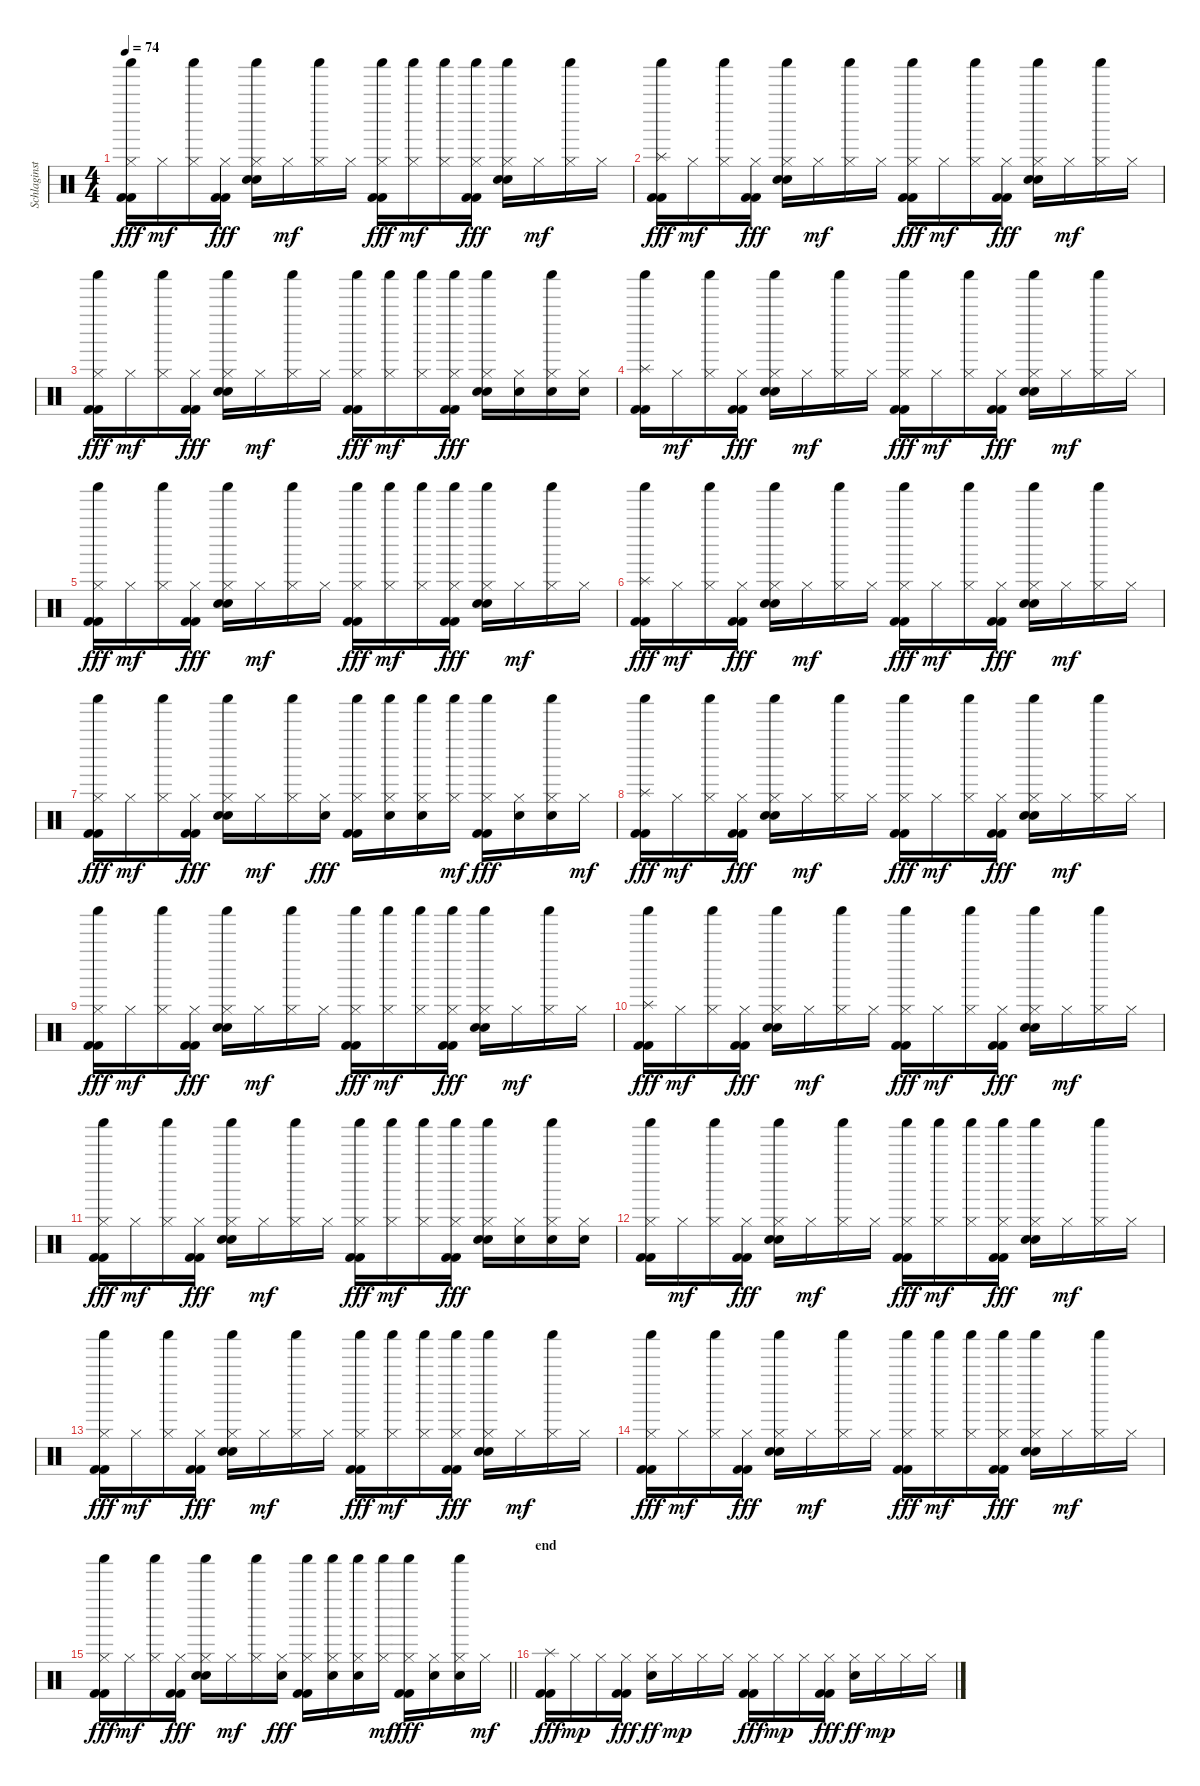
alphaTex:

\track ("Schlaginstrumente - Auswahl" "Schlaginst") {instrument percussion}
\staff {score}
\articulation defaults
\ts (4 4)
\tempo 74
\clef neutral
\ks c
("Shaker (hit)" "Hi-Hat (closed)" "Kick (hit) 2" "Kick (hit) 2").16{dy fff} "Hi-Hat (closed)".16{dy mf} ("Shaker (hit)" "Hi-Hat (closed)").16 ("Hi-Hat (closed)" "Kick (hit) 2" "Kick (hit) 2").16{dy fff} ("Shaker (hit)" "Hi-Hat (closed)" "Electric Snare (hit)" "Hand Clap (hit)").16 "Hi-Hat (closed)".16{dy mf} ("Shaker (hit)" "Hi-Hat (closed)").16 "Hi-Hat (closed)".16 ("Shaker (hit)" "Hi-Hat (closed)" "Kick (hit) 2" "Kick (hit) 2").16{dy fff} ("Shaker (hit)" "Hi-Hat (closed)").16{dy mf} ("Shaker (hit)" "Hi-Hat (closed)").16 ("Shaker (hit)" "Hi-Hat (closed)" "Kick (hit) 2" "Kick (hit) 2").16{dy fff} ("Shaker (hit)" "Hi-Hat (closed)" "Electric Snare (hit)" "Hand Clap (hit)").16 "Hi-Hat (closed)".16{dy mf} ("Shaker (hit)" "Hi-Hat (closed)").16 "Hi-Hat (closed)".16 |
("Shaker (hit)" "Splash (hit)" "Kick (hit) 2" "Kick (hit) 2").16{dy fff} "Hi-Hat (closed)".16{dy mf} ("Shaker (hit)" "Hi-Hat (closed)").16 ("Hi-Hat (closed)" "Kick (hit) 2" "Kick (hit) 2").16{dy fff} ("Shaker (hit)" "Hi-Hat (closed)" "Electric Snare (hit)" "Hand Clap (hit)").16 "Hi-Hat (closed)".16{dy mf} ("Shaker (hit)" "Hi-Hat (closed)").16 "Hi-Hat (closed)".16 ("Shaker (hit)" "Hi-Hat (closed)" "Kick (hit) 2" "Kick (hit) 2").16{dy fff} "Hi-Hat (closed)".16{dy mf} ("Shaker (hit)" "Hi-Hat (closed)").16 ("Hi-Hat (closed)" "Kick (hit) 2" "Kick (hit) 2").16{dy fff} ("Shaker (hit)" "Hi-Hat (closed)" "Electric Snare (hit)" "Hand Clap (hit)").16 "Hi-Hat (closed)".16{dy mf} ("Shaker (hit)" "Hi-Hat (closed)").16 "Hi-Hat (closed)".16 |
("Shaker (hit)" "Hi-Hat (closed)" "Kick (hit) 2" "Kick (hit) 2").16{dy fff} "Hi-Hat (closed)".16{dy mf} ("Shaker (hit)" "Hi-Hat (closed)").16 ("Hi-Hat (closed)" "Kick (hit) 2" "Kick (hit) 2").16{dy fff} ("Shaker (hit)" "Hi-Hat (closed)" "Electric Snare (hit)" "Hand Clap (hit)").16 "Hi-Hat (closed)".16{dy mf} ("Shaker (hit)" "Hi-Hat (closed)").16 "Hi-Hat (closed)".16 ("Shaker (hit)" "Hi-Hat (closed)" "Kick (hit) 2" "Kick (hit) 2").16{dy fff} ("Shaker (hit)" "Hi-Hat (closed)").16{dy mf} ("Shaker (hit)" "Hi-Hat (closed)").16 ("Shaker (hit)" "Hi-Hat (closed)" "Kick (hit) 2" "Kick (hit) 2").16{dy fff} ("Shaker (hit)" "Hi-Hat (closed)" "Electric Snare (hit)" "Hand Clap (hit)").16 ("Hi-Hat (closed)" "Electric Snare (hit)").16 ("Shaker (hit)" "Hi-Hat (closed)" "Electric Snare (hit)").16 ("Hi-Hat (closed)" "Electric Snare (hit)").16 |
("Shaker (hit)" "Splash (hit)" "Kick (hit) 2" "Kick (hit) 2").16 "Hi-Hat (closed)".16{dy mf} ("Shaker (hit)" "Hi-Hat (closed)").16 ("Hi-Hat (closed)" "Kick (hit) 2" "Kick (hit) 2").16{dy fff} ("Shaker (hit)" "Hi-Hat (closed)" "Electric Snare (hit)" "Hand Clap (hit)").16 "Hi-Hat (closed)".16{dy mf} ("Shaker (hit)" "Hi-Hat (closed)").16 "Hi-Hat (closed)".16 ("Shaker (hit)" "Hi-Hat (closed)" "Kick (hit) 2" "Kick (hit) 2").16{dy fff} "Hi-Hat (closed)".16{dy mf} ("Shaker (hit)" "Hi-Hat (closed)").16 ("Hi-Hat (closed)" "Kick (hit) 2" "Kick (hit) 2").16{dy fff} ("Shaker (hit)" "Hi-Hat (closed)" "Electric Snare (hit)" "Hand Clap (hit)").16 "Hi-Hat (closed)".16{dy mf} ("Shaker (hit)" "Hi-Hat (closed)").16 "Hi-Hat (closed)".16 |
("Shaker (hit)" "Hi-Hat (closed)" "Kick (hit) 2" "Kick (hit) 2").16{dy fff} "Hi-Hat (closed)".16{dy mf} ("Shaker (hit)" "Hi-Hat (closed)").16 ("Hi-Hat (closed)" "Kick (hit) 2" "Kick (hit) 2").16{dy fff} ("Shaker (hit)" "Hi-Hat (closed)" "Electric Snare (hit)" "Hand Clap (hit)").16 "Hi-Hat (closed)".16{dy mf} ("Shaker (hit)" "Hi-Hat (closed)").16 "Hi-Hat (closed)".16 ("Shaker (hit)" "Hi-Hat (closed)" "Kick (hit) 2" "Kick (hit) 2").16{dy fff} ("Shaker (hit)" "Hi-Hat (closed)").16{dy mf} ("Shaker (hit)" "Hi-Hat (closed)").16 ("Shaker (hit)" "Hi-Hat (closed)" "Kick (hit) 2" "Kick (hit) 2").16{dy fff} ("Shaker (hit)" "Hi-Hat (closed)" "Electric Snare (hit)" "Hand Clap (hit)").16 "Hi-Hat (closed)".16{dy mf} ("Shaker (hit)" "Hi-Hat (closed)").16 "Hi-Hat (closed)".16 |
("Shaker (hit)" "Splash (hit)" "Kick (hit) 2" "Kick (hit) 2").16{dy fff} "Hi-Hat (closed)".16{dy mf} ("Shaker (hit)" "Hi-Hat (closed)").16 ("Hi-Hat (closed)" "Kick (hit) 2" "Kick (hit) 2").16{dy fff} ("Shaker (hit)" "Hi-Hat (closed)" "Electric Snare (hit)" "Hand Clap (hit)").16 "Hi-Hat (closed)".16{dy mf} ("Shaker (hit)" "Hi-Hat (closed)").16 "Hi-Hat (closed)".16 ("Shaker (hit)" "Hi-Hat (closed)" "Kick (hit) 2" "Kick (hit) 2").16{dy fff} "Hi-Hat (closed)".16{dy mf} ("Shaker (hit)" "Hi-Hat (closed)").16 ("Hi-Hat (closed)" "Kick (hit) 2" "Kick (hit) 2").16{dy fff} ("Shaker (hit)" "Hi-Hat (closed)" "Electric Snare (hit)" "Hand Clap (hit)").16 "Hi-Hat (closed)".16{dy mf} ("Shaker (hit)" "Hi-Hat (closed)").16 "Hi-Hat (closed)".16 |
("Shaker (hit)" "Hi-Hat (closed)" "Kick (hit) 2" "Kick (hit) 2").16{dy fff} "Hi-Hat (closed)".16{dy mf} ("Shaker (hit)" "Hi-Hat (closed)").16 ("Hi-Hat (closed)" "Kick (hit) 2" "Kick (hit) 2").16{dy fff} ("Shaker (hit)" "Hi-Hat (closed)" "Electric Snare (hit)" "Hand Clap (hit)").16 "Hi-Hat (closed)".16{dy mf} ("Shaker (hit)" "Hi-Hat (closed)").16 ("Hi-Hat (closed)" "Electric Snare (hit)").16{dy fff} ("Shaker (hit)" "Hi-Hat (closed)" "Kick (hit) 2" "Kick (hit) 2").16 ("Shaker (hit)" "Hi-Hat (closed)" "Electric Snare (hit)").16 ("Shaker (hit)" "Hi-Hat (closed)" "Electric Snare (hit)").16 ("Shaker (hit)" "Hi-Hat (closed)").16{dy mf} ("Shaker (hit)" "Hi-Hat (closed)" "Kick (hit) 2" "Kick (hit) 2").16{dy fff} ("Hi-Hat (closed)" "Electric Snare (hit)").16 ("Shaker (hit)" "Hi-Hat (closed)" "Electric Snare (hit)").16 "Hi-Hat (closed)".16{dy mf} |
("Shaker (hit)" "Splash (hit)" "Kick (hit) 2" "Kick (hit) 2").16{dy fff} "Hi-Hat (closed)".16{dy mf} ("Shaker (hit)" "Hi-Hat (closed)").16 ("Hi-Hat (closed)" "Kick (hit) 2" "Kick (hit) 2").16{dy fff} ("Shaker (hit)" "Hi-Hat (closed)" "Electric Snare (hit)" "Hand Clap (hit)").16 "Hi-Hat (closed)".16{dy mf} ("Shaker (hit)" "Hi-Hat (closed)").16 "Hi-Hat (closed)".16 ("Shaker (hit)" "Hi-Hat (closed)" "Kick (hit) 2" "Kick (hit) 2").16{dy fff} "Hi-Hat (closed)".16{dy mf} ("Shaker (hit)" "Hi-Hat (closed)").16 ("Hi-Hat (closed)" "Kick (hit) 2" "Kick (hit) 2").16{dy fff} ("Shaker (hit)" "Hi-Hat (closed)" "Electric Snare (hit)" "Hand Clap (hit)").16 "Hi-Hat (closed)".16{dy mf} ("Shaker (hit)" "Hi-Hat (closed)").16 "Hi-Hat (closed)".16 |
("Shaker (hit)" "Hi-Hat (closed)" "Kick (hit) 2" "Kick (hit) 2").16{dy fff} "Hi-Hat (closed)".16{dy mf} ("Shaker (hit)" "Hi-Hat (closed)").16 ("Hi-Hat (closed)" "Kick (hit) 2" "Kick (hit) 2").16{dy fff} ("Shaker (hit)" "Hi-Hat (closed)" "Electric Snare (hit)" "Hand Clap (hit)").16 "Hi-Hat (closed)".16{dy mf} ("Shaker (hit)" "Hi-Hat (closed)").16 "Hi-Hat (closed)".16 ("Shaker (hit)" "Hi-Hat (closed)" "Kick (hit) 2" "Kick (hit) 2").16{dy fff} ("Shaker (hit)" "Hi-Hat (closed)").16{dy mf} ("Shaker (hit)" "Hi-Hat (closed)").16 ("Shaker (hit)" "Hi-Hat (closed)" "Kick (hit) 2" "Kick (hit) 2").16{dy fff} ("Shaker (hit)" "Hi-Hat (closed)" "Electric Snare (hit)" "Hand Clap (hit)").16 "Hi-Hat (closed)".16{dy mf} ("Shaker (hit)" "Hi-Hat (closed)").16 "Hi-Hat (closed)".16 |
("Shaker (hit)" "Splash (hit)" "Kick (hit) 2" "Kick (hit) 2").16{dy fff} "Hi-Hat (closed)".16{dy mf} ("Shaker (hit)" "Hi-Hat (closed)").16 ("Hi-Hat (closed)" "Kick (hit) 2" "Kick (hit) 2").16{dy fff} ("Shaker (hit)" "Hi-Hat (closed)" "Electric Snare (hit)" "Hand Clap (hit)").16 "Hi-Hat (closed)".16{dy mf} ("Shaker (hit)" "Hi-Hat (closed)").16 "Hi-Hat (closed)".16 ("Shaker (hit)" "Hi-Hat (closed)" "Kick (hit) 2" "Kick (hit) 2").16{dy fff} "Hi-Hat (closed)".16{dy mf} ("Shaker (hit)" "Hi-Hat (closed)").16 ("Hi-Hat (closed)" "Kick (hit) 2" "Kick (hit) 2").16{dy fff} ("Shaker (hit)" "Hi-Hat (closed)" "Electric Snare (hit)" "Hand Clap (hit)").16 "Hi-Hat (closed)".16{dy mf} ("Shaker (hit)" "Hi-Hat (closed)").16 "Hi-Hat (closed)".16 |
("Shaker (hit)" "Hi-Hat (closed)" "Kick (hit) 2" "Kick (hit) 2").16{dy fff} "Hi-Hat (closed)".16{dy mf} ("Shaker (hit)" "Hi-Hat (closed)").16 ("Hi-Hat (closed)" "Kick (hit) 2" "Kick (hit) 2").16{dy fff} ("Shaker (hit)" "Hi-Hat (closed)" "Electric Snare (hit)" "Hand Clap (hit)").16 "Hi-Hat (closed)".16{dy mf} ("Shaker (hit)" "Hi-Hat (closed)").16 "Hi-Hat (closed)".16 ("Shaker (hit)" "Hi-Hat (closed)" "Kick (hit) 2" "Kick (hit) 2").16{dy fff} ("Shaker (hit)" "Hi-Hat (closed)").16{dy mf} ("Shaker (hit)" "Hi-Hat (closed)").16 ("Shaker (hit)" "Hi-Hat (closed)" "Kick (hit) 2" "Kick (hit) 2").16{dy fff} ("Shaker (hit)" "Hi-Hat (closed)" "Electric Snare (hit)" "Hand Clap (hit)").16 ("Hi-Hat (closed)" "Electric Snare (hit)").16 ("Shaker (hit)" "Hi-Hat (closed)" "Electric Snare (hit)").16 ("Hi-Hat (closed)" "Electric Snare (hit)").16 |
("Shaker (hit)" "Hi-Hat (closed)" "Kick (hit) 2" "Kick (hit) 2").16 "Hi-Hat (closed)".16{dy mf} ("Shaker (hit)" "Hi-Hat (closed)").16 ("Hi-Hat (closed)" "Kick (hit) 2" "Kick (hit) 2").16{dy fff} ("Shaker (hit)" "Hi-Hat (closed)" "Electric Snare (hit)" "Hand Clap (hit)").16 "Hi-Hat (closed)".16{dy mf} ("Shaker (hit)" "Hi-Hat (closed)").16 "Hi-Hat (closed)".16 ("Shaker (hit)" "Hi-Hat (closed)" "Kick (hit) 2" "Kick (hit) 2").16{dy fff} ("Shaker (hit)" "Hi-Hat (closed)").16{dy mf} ("Shaker (hit)" "Hi-Hat (closed)").16 ("Shaker (hit)" "Hi-Hat (closed)" "Kick (hit) 2" "Kick (hit) 2").16{dy fff} ("Shaker (hit)" "Hi-Hat (closed)" "Electric Snare (hit)" "Hand Clap (hit)").16 "Hi-Hat (closed)".16{dy mf} ("Shaker (hit)" "Hi-Hat (closed)").16 "Hi-Hat (closed)".16 |
("Shaker (hit)" "Hi-Hat (closed)" "Kick (hit) 2" "Kick (hit) 2").16{dy fff} "Hi-Hat (closed)".16{dy mf} ("Shaker (hit)" "Hi-Hat (closed)").16 ("Hi-Hat (closed)" "Kick (hit) 2" "Kick (hit) 2").16{dy fff} ("Shaker (hit)" "Hi-Hat (closed)" "Electric Snare (hit)" "Hand Clap (hit)").16 "Hi-Hat (closed)".16{dy mf} ("Shaker (hit)" "Hi-Hat (closed)").16 "Hi-Hat (closed)".16 ("Shaker (hit)" "Hi-Hat (closed)" "Kick (hit) 2" "Kick (hit) 2").16{dy fff} ("Shaker (hit)" "Hi-Hat (closed)").16{dy mf} ("Shaker (hit)" "Hi-Hat (closed)").16 ("Shaker (hit)" "Hi-Hat (closed)" "Kick (hit) 2" "Kick (hit) 2").16{dy fff} ("Shaker (hit)" "Hi-Hat (closed)" "Electric Snare (hit)" "Hand Clap (hit)").16 "Hi-Hat (closed)".16{dy mf} ("Shaker (hit)" "Hi-Hat (closed)").16 "Hi-Hat (closed)".16 |
("Shaker (hit)" "Hi-Hat (closed)" "Kick (hit) 2" "Kick (hit) 2").16{dy fff} "Hi-Hat (closed)".16{dy mf} ("Shaker (hit)" "Hi-Hat (closed)").16 ("Hi-Hat (closed)" "Kick (hit) 2" "Kick (hit) 2").16{dy fff} ("Shaker (hit)" "Hi-Hat (closed)" "Electric Snare (hit)" "Hand Clap (hit)").16 "Hi-Hat (closed)".16{dy mf} ("Shaker (hit)" "Hi-Hat (closed)").16 "Hi-Hat (closed)".16 ("Shaker (hit)" "Hi-Hat (closed)" "Kick (hit) 2" "Kick (hit) 2").16{dy fff} ("Shaker (hit)" "Hi-Hat (closed)").16{dy mf} ("Shaker (hit)" "Hi-Hat (closed)").16 ("Shaker (hit)" "Hi-Hat (closed)" "Kick (hit) 2" "Kick (hit) 2").16{dy fff} ("Shaker (hit)" "Hi-Hat (closed)" "Electric Snare (hit)" "Hand Clap (hit)").16 "Hi-Hat (closed)".16{dy mf} ("Shaker (hit)" "Hi-Hat (closed)").16 "Hi-Hat (closed)".16 |
\barLineRight lightlight
("Shaker (hit)" "Hi-Hat (closed)" "Kick (hit) 2" "Kick (hit) 2").16{dy fff} "Hi-Hat (closed)".16{dy mf} ("Shaker (hit)" "Hi-Hat (closed)").16 ("Hi-Hat (closed)" "Kick (hit) 2" "Kick (hit) 2").16{dy fff} ("Shaker (hit)" "Hi-Hat (closed)" "Electric Snare (hit)" "Hand Clap (hit)").16 "Hi-Hat (closed)".16{dy mf} ("Shaker (hit)" "Hi-Hat (closed)").16 ("Hi-Hat (closed)" "Electric Snare (hit)").16{dy fff} ("Shaker (hit)" "Hi-Hat (closed)" "Kick (hit) 2" "Kick (hit) 2").16 ("Shaker (hit)" "Hi-Hat (closed)" "Electric Snare (hit)").16 ("Shaker (hit)" "Hi-Hat (closed)" "Electric Snare (hit)").16 ("Shaker (hit)" "Hi-Hat (closed)").16{dy mf} ("Shaker (hit)" "Hi-Hat (closed)" "Kick (hit) 2" "Kick (hit) 2").16{dy fff} ("Hi-Hat (closed)" "Electric Snare (hit)").16 ("Shaker (hit)" "Hi-Hat (closed)" "Electric Snare (hit)").16 "Hi-Hat (closed)".16{dy mf} |
\section ("" "end")
("Splash (hit)" "Kick (hit) 2" "Kick (hit) 2").16{dy fff} "Hi-Hat (closed)".16{dy mp} "Hi-Hat (closed)".16 ("Hi-Hat (closed)" "Kick (hit) 2" "Kick (hit) 2").16{dy fff} ("Hi-Hat (closed)" "Electric Snare (hit)").16{dy ff} "Hi-Hat (closed)".16{dy mp} "Hi-Hat (closed)".16 "Hi-Hat (closed)".16 ("Hi-Hat (closed)" "Kick (hit) 2" "Kick (hit) 2").16{dy fff} "Hi-Hat (closed)".16{dy mp} "Hi-Hat (closed)".16 ("Hi-Hat (closed)" "Kick (hit) 2" "Kick (hit) 2").16{dy fff} ("Hi-Hat (closed)" "Electric Snare (hit)").16{dy ff} "Hi-Hat (closed)".16{dy mp} "Hi-Hat (closed)".16 "Hi-Hat (closed)".16
